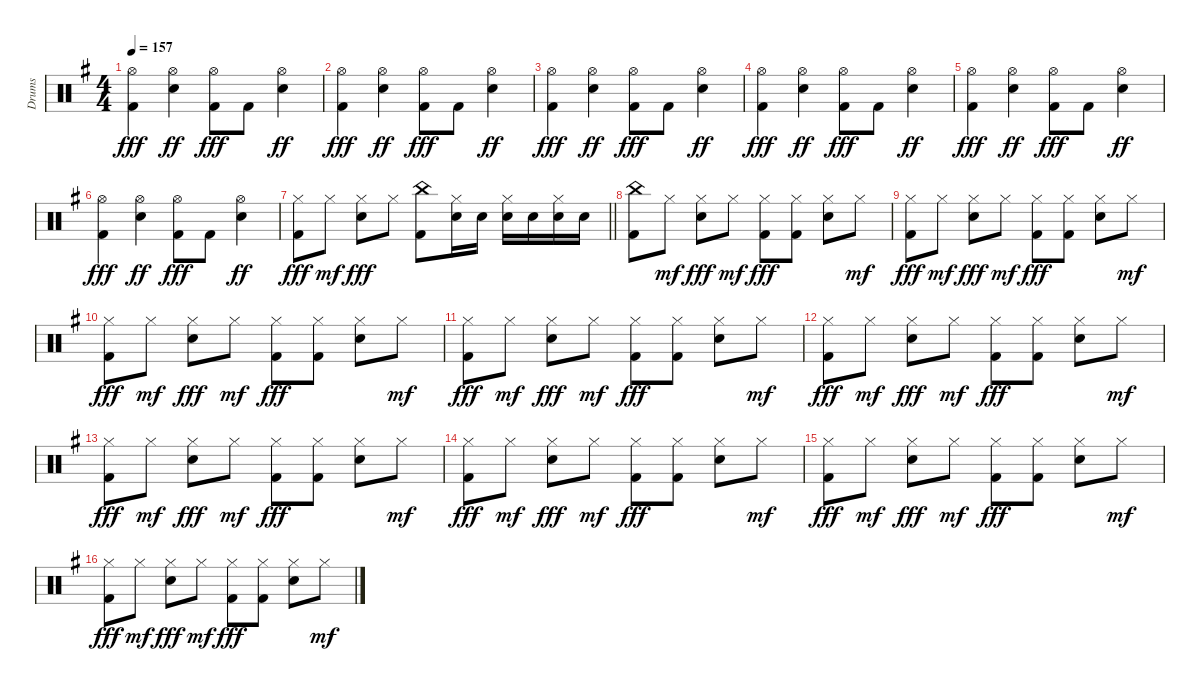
\track ("Drums" "Drums") {instrument percussion}
\staff {score}
\articulation defaults
\ts (4 4)
\tempo 157
\clef neutral
\ks g
("Hi-Hat (open)" "Kick (hit) 2").4{dy fff} ("Electric Snare (hit)" "Hi-Hat (open)").4{dy ff} ("Hi-Hat (open)" "Kick (hit) 2").8{dy fff} "Kick (hit) 2".8 ("Electric Snare (hit)" "Hi-Hat (open)").4{dy ff} |
("Hi-Hat (open)" "Kick (hit) 2").4{dy fff} ("Electric Snare (hit)" "Hi-Hat (open)").4{dy ff} ("Hi-Hat (open)" "Kick (hit) 2").8{dy fff} "Kick (hit) 2".8 ("Electric Snare (hit)" "Hi-Hat (open)").4{dy ff} |
("Hi-Hat (open)" "Kick (hit) 2").4{dy fff} ("Electric Snare (hit)" "Hi-Hat (open)").4{dy ff} ("Hi-Hat (open)" "Kick (hit) 2").8{dy fff} "Kick (hit) 2".8 ("Electric Snare (hit)" "Hi-Hat (open)").4{dy ff} |
("Hi-Hat (open)" "Kick (hit) 2").4{dy fff} ("Electric Snare (hit)" "Hi-Hat (open)").4{dy ff} ("Hi-Hat (open)" "Kick (hit) 2").8{dy fff} "Kick (hit) 2".8 ("Electric Snare (hit)" "Hi-Hat (open)").4{dy ff} |
("Hi-Hat (open)" "Kick (hit) 2").4{dy fff} ("Electric Snare (hit)" "Hi-Hat (open)").4{dy ff} ("Hi-Hat (open)" "Kick (hit) 2").8{dy fff} "Kick (hit) 2".8 ("Electric Snare (hit)" "Hi-Hat (open)").4{dy ff} |
("Hi-Hat (open)" "Kick (hit) 2").4{dy fff} ("Electric Snare (hit)" "Hi-Hat (open)").4{dy ff} ("Hi-Hat (open)" "Kick (hit) 2").8{dy fff} "Kick (hit) 2".8 ("Electric Snare (hit)" "Hi-Hat (open)").4{dy ff} |
\barLineRight lightlight
("Hi-Hat (closed)" "Kick (hit) 2").8{dy fff} "Hi-Hat (closed)".8{dy mf} ("Electric Snare (hit)" "Hi-Hat (closed)").8{dy fff} "Hi-Hat (closed)".8 ("China (hit)" "Kick (hit) 2").8 ("Electric Snare (hit)" "Hi-Hat (closed)").16 "Electric Snare (hit)".16 ("Electric Snare (hit)" "Hi-Hat (closed)").16 "Electric Snare (hit)".16 ("Electric Snare (hit)" "Hi-Hat (closed)").16 "Electric Snare (hit)".16 |
("China (hit)" "Kick (hit) 2").8 "Hi-Hat (closed)".8{dy mf} ("Electric Snare (hit)" "Hi-Hat (closed)").8{dy fff} "Hi-Hat (closed)".8{dy mf} ("Hi-Hat (closed)" "Kick (hit) 2").8{dy fff} ("Hi-Hat (closed)" "Kick (hit) 2").8 ("Electric Snare (hit)" "Hi-Hat (closed)").8 "Hi-Hat (closed)".8{dy mf} |
("Hi-Hat (closed)" "Kick (hit) 2").8{dy fff} "Hi-Hat (closed)".8{dy mf} ("Electric Snare (hit)" "Hi-Hat (closed)").8{dy fff} "Hi-Hat (closed)".8{dy mf} ("Hi-Hat (closed)" "Kick (hit) 2").8{dy fff} ("Hi-Hat (closed)" "Kick (hit) 2").8 ("Electric Snare (hit)" "Hi-Hat (closed)").8 "Hi-Hat (closed)".8{dy mf} |
("Hi-Hat (closed)" "Kick (hit) 2").8{dy fff} "Hi-Hat (closed)".8{dy mf} ("Electric Snare (hit)" "Hi-Hat (closed)").8{dy fff} "Hi-Hat (closed)".8{dy mf} ("Hi-Hat (closed)" "Kick (hit) 2").8{dy fff} ("Hi-Hat (closed)" "Kick (hit) 2").8 ("Electric Snare (hit)" "Hi-Hat (closed)").8 "Hi-Hat (closed)".8{dy mf} |
("Hi-Hat (closed)" "Kick (hit) 2").8{dy fff} "Hi-Hat (closed)".8{dy mf} ("Electric Snare (hit)" "Hi-Hat (closed)").8{dy fff} "Hi-Hat (closed)".8{dy mf} ("Hi-Hat (closed)" "Kick (hit) 2").8{dy fff} ("Hi-Hat (closed)" "Kick (hit) 2").8 ("Electric Snare (hit)" "Hi-Hat (closed)").8 "Hi-Hat (closed)".8{dy mf} |
("Hi-Hat (closed)" "Kick (hit) 2").8{dy fff} "Hi-Hat (closed)".8{dy mf} ("Electric Snare (hit)" "Hi-Hat (closed)").8{dy fff} "Hi-Hat (closed)".8{dy mf} ("Hi-Hat (closed)" "Kick (hit) 2").8{dy fff} ("Hi-Hat (closed)" "Kick (hit) 2").8 ("Electric Snare (hit)" "Hi-Hat (closed)").8 "Hi-Hat (closed)".8{dy mf} |
("Hi-Hat (closed)" "Kick (hit) 2").8{dy fff} "Hi-Hat (closed)".8{dy mf} ("Electric Snare (hit)" "Hi-Hat (closed)").8{dy fff} "Hi-Hat (closed)".8{dy mf} ("Hi-Hat (closed)" "Kick (hit) 2").8{dy fff} ("Hi-Hat (closed)" "Kick (hit) 2").8 ("Electric Snare (hit)" "Hi-Hat (closed)").8 "Hi-Hat (closed)".8{dy mf} |
("Hi-Hat (closed)" "Kick (hit) 2").8{dy fff} "Hi-Hat (closed)".8{dy mf} ("Electric Snare (hit)" "Hi-Hat (closed)").8{dy fff} "Hi-Hat (closed)".8{dy mf} ("Hi-Hat (closed)" "Kick (hit) 2").8{dy fff} ("Hi-Hat (closed)" "Kick (hit) 2").8 ("Electric Snare (hit)" "Hi-Hat (closed)").8 "Hi-Hat (closed)".8{dy mf} |
("Hi-Hat (closed)" "Kick (hit) 2").8{dy fff} "Hi-Hat (closed)".8{dy mf} ("Electric Snare (hit)" "Hi-Hat (closed)").8{dy fff} "Hi-Hat (closed)".8{dy mf} ("Hi-Hat (closed)" "Kick (hit) 2").8{dy fff} ("Hi-Hat (closed)" "Kick (hit) 2").8 ("Electric Snare (hit)" "Hi-Hat (closed)").8 "Hi-Hat (closed)".8{dy mf} |
("Hi-Hat (closed)" "Kick (hit) 2").8{dy fff} "Hi-Hat (closed)".8{dy mf} ("Electric Snare (hit)" "Hi-Hat (closed)").8{dy fff} "Hi-Hat (closed)".8{dy mf} ("Hi-Hat (closed)" "Kick (hit) 2").8{dy fff} ("Hi-Hat (closed)" "Kick (hit) 2").8 ("Electric Snare (hit)" "Hi-Hat (closed)").8 "Hi-Hat (closed)".8{dy mf}
